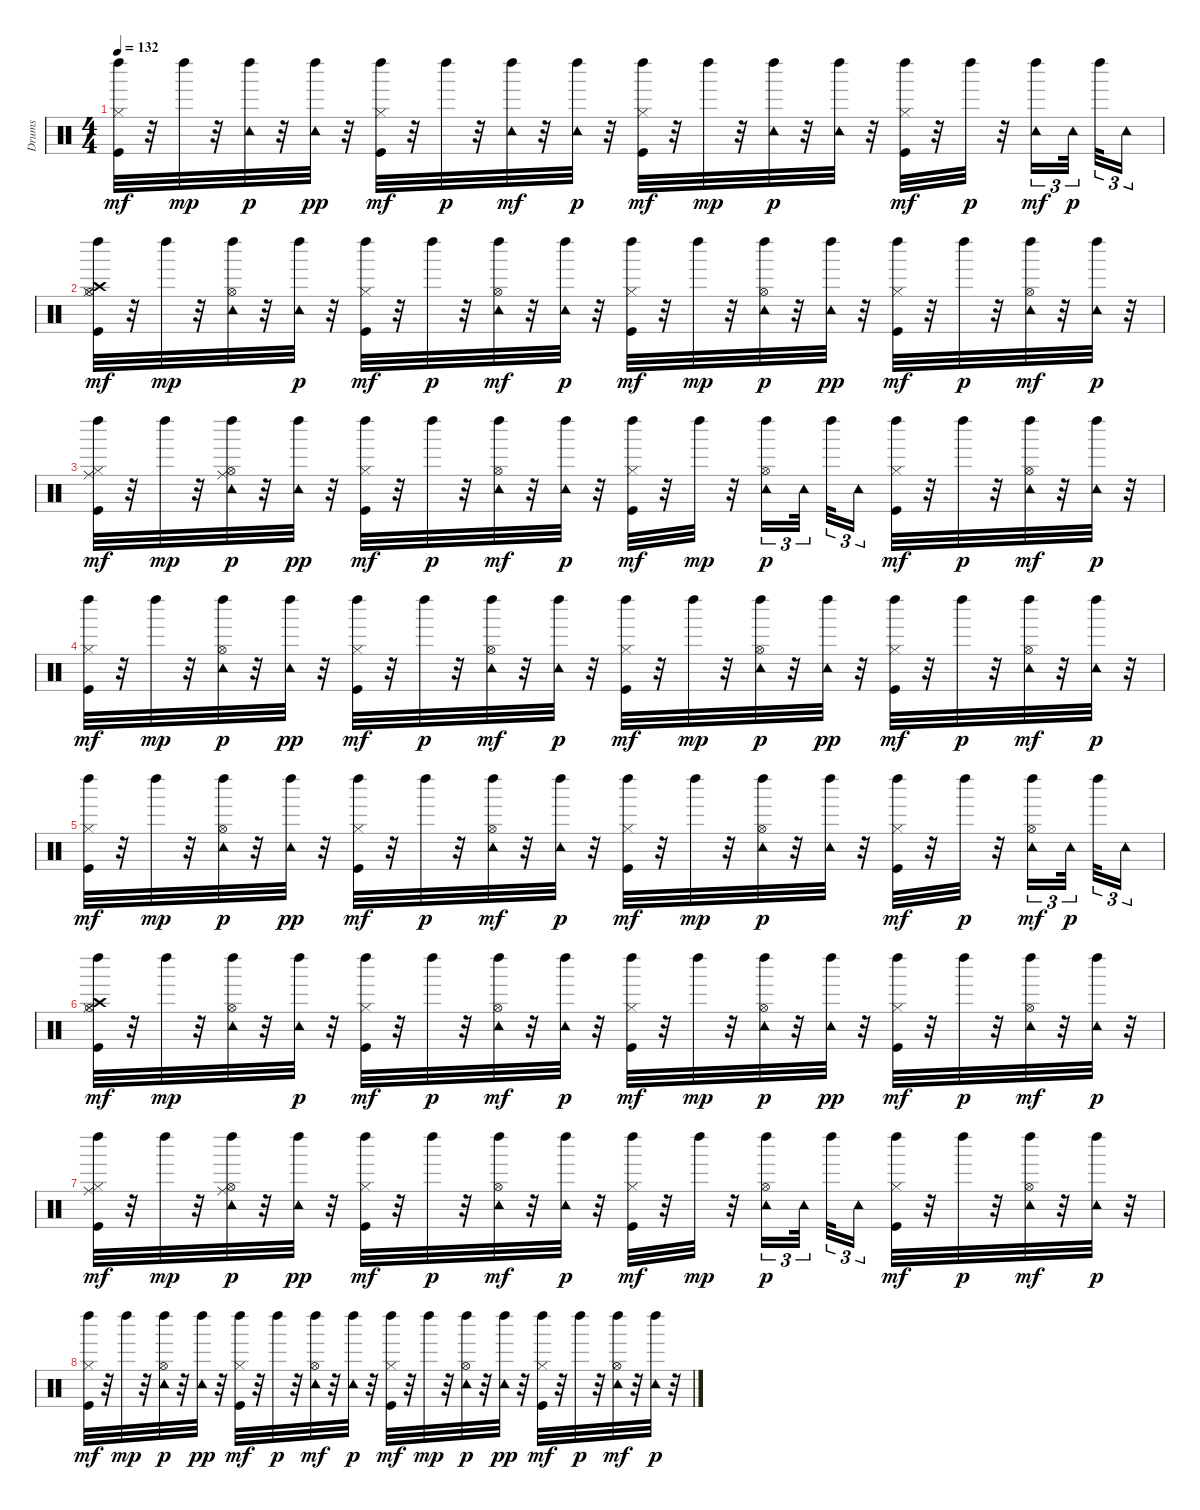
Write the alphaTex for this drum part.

\track ("Drums" "Drums") {instrument percussion}
\staff {score}
\articulation defaults
\ts (4 4)
\tempo 132
\clef neutral
\ks c
("Kick (hit)" "Hi-Hat (closed)" "Left Maraca (hit)").32{dy mf} r.32 "Left Maraca (hit)".32{dy mp} r.32 ("Tambourine (hit)" "Left Maraca (hit)").32{dy p} r.32 ("Tambourine (hit)" "Left Maraca (hit)").32{dy pp} r.32 ("Kick (hit)" "Hi-Hat (closed)" "Left Maraca (hit)").32{dy mf} r.32 "Left Maraca (hit)".32{dy p} r.32 ("Tambourine (hit)" "Left Maraca (hit)").32{dy mf} r.32 ("Tambourine (hit)" "Left Maraca (hit)").32{dy p} r.32 ("Kick (hit)" "Hi-Hat (closed)" "Left Maraca (hit)").32{dy mf} r.32 "Left Maraca (hit)".32{dy mp} r.32 ("Tambourine (hit)" "Left Maraca (hit)").32{dy p} r.32 ("Tambourine (hit)" "Left Maraca (hit)").32 r.32 ("Kick (hit)" "Hi-Hat (closed)" "Left Maraca (hit)").32{dy mf} r.32 "Left Maraca (hit)".32{dy p} r.32 ("Tambourine (hit)" "Left Maraca (hit)").16{tu (3 2) dy mf} "Tambourine (hit)".32{tu (3 2) dy p beam splitsecondary} "Left Maraca (hit)".32{tu (3 2)} "Tambourine (hit)".16{tu (3 2)} |
("Kick (hit)" "Hi-Hat (closed)" "Hi-Hat (open)" "Crash high (hit)" "Left Maraca (hit)").32{dy mf} r.32 "Left Maraca (hit)".32{dy mp} r.32 ("Hi-Hat (open)" "Tambourine (hit)" "Left Maraca (hit)").32 r.32 ("Tambourine (hit)" "Left Maraca (hit)").32{dy p} r.32 ("Kick (hit)" "Hi-Hat (closed)" "Left Maraca (hit)").32{dy mf} r.32 "Left Maraca (hit)".32{dy p} r.32 ("Hi-Hat (open)" "Tambourine (hit)" "Left Maraca (hit)").32{dy mf} r.32 ("Tambourine (hit)" "Left Maraca (hit)").32{dy p} r.32 ("Kick (hit)" "Hi-Hat (closed)" "Left Maraca (hit)").32{dy mf} r.32 "Left Maraca (hit)".32{dy mp} r.32 ("Hi-Hat (open)" "Tambourine (hit)" "Left Maraca (hit)").32{dy p} r.32 ("Tambourine (hit)" "Left Maraca (hit)").32{dy pp} r.32 ("Kick (hit)" "Hi-Hat (closed)" "Left Maraca (hit)").32{dy mf} r.32 "Left Maraca (hit)".32{dy p} r.32 ("Hi-Hat (open)" "Tambourine (hit)" "Left Maraca (hit)").32{dy mf} r.32 ("Tambourine (hit)" "Left Maraca (hit)").32{dy p} r.32 |
("Kick (hit)" "Hi-Hat (closed)" "Ride (middle)" "Left Maraca (hit)").32{dy mf} r.32 "Left Maraca (hit)".32{dy mp} r.32 ("Hi-Hat (open)" "Ride (middle)" "Tambourine (hit)" "Left Maraca (hit)").32{dy p} r.32 ("Tambourine (hit)" "Left Maraca (hit)").32{dy pp} r.32 ("Kick (hit)" "Hi-Hat (closed)" "Left Maraca (hit)").32{dy mf} r.32 "Left Maraca (hit)".32{dy p} r.32 ("Hi-Hat (open)" "Tambourine (hit)" "Left Maraca (hit)").32{dy mf} r.32 ("Tambourine (hit)" "Left Maraca (hit)").32{dy p} r.32 ("Kick (hit)" "Hi-Hat (closed)" "Left Maraca (hit)").32{dy mf} r.32 "Left Maraca (hit)".32{dy mp} r.32 ("Hi-Hat (open)" "Tambourine (hit)" "Left Maraca (hit)").16{tu (3 2) dy p} "Tambourine (hit)".32{tu (3 2) beam splitsecondary} "Left Maraca (hit)".32{tu (3 2)} "Tambourine (hit)".16{tu (3 2)} ("Kick (hit)" "Hi-Hat (closed)" "Left Maraca (hit)").32{dy mf} r.32 "Left Maraca (hit)".32{dy p} r.32 ("Hi-Hat (open)" "Tambourine (hit)" "Left Maraca (hit)").32{dy mf} r.32 ("Tambourine (hit)" "Left Maraca (hit)").32{dy p} r.32 |
("Kick (hit)" "Hi-Hat (closed)" "Left Maraca (hit)").32{dy mf} r.32 "Left Maraca (hit)".32{dy mp} r.32 ("Hi-Hat (open)" "Tambourine (hit)" "Left Maraca (hit)").32{dy p} r.32 ("Tambourine (hit)" "Left Maraca (hit)").32{dy pp} r.32 ("Kick (hit)" "Hi-Hat (closed)" "Left Maraca (hit)").32{dy mf} r.32 "Left Maraca (hit)".32{dy p} r.32 ("Hi-Hat (open)" "Tambourine (hit)" "Left Maraca (hit)").32{dy mf} r.32 ("Tambourine (hit)" "Left Maraca (hit)").32{dy p} r.32 ("Kick (hit)" "Hi-Hat (closed)" "Left Maraca (hit)").32{dy mf} r.32 "Left Maraca (hit)".32{dy mp} r.32 ("Hi-Hat (open)" "Tambourine (hit)" "Left Maraca (hit)").32{dy p} r.32 ("Tambourine (hit)" "Left Maraca (hit)").32{dy pp} r.32 ("Kick (hit)" "Hi-Hat (closed)" "Left Maraca (hit)").32{dy mf} r.32 "Left Maraca (hit)".32{dy p} r.32 ("Hi-Hat (open)" "Tambourine (hit)" "Left Maraca (hit)").32{dy mf} r.32 ("Tambourine (hit)" "Left Maraca (hit)").32{dy p} r.32 |
("Kick (hit)" "Hi-Hat (closed)" "Left Maraca (hit)").32{dy mf} r.32 "Left Maraca (hit)".32{dy mp} r.32 ("Hi-Hat (open)" "Tambourine (hit)" "Left Maraca (hit)").32{dy p} r.32 ("Tambourine (hit)" "Left Maraca (hit)").32{dy pp} r.32 ("Kick (hit)" "Hi-Hat (closed)" "Left Maraca (hit)").32{dy mf} r.32 "Left Maraca (hit)".32{dy p} r.32 ("Hi-Hat (open)" "Tambourine (hit)" "Left Maraca (hit)").32{dy mf} r.32 ("Tambourine (hit)" "Left Maraca (hit)").32{dy p} r.32 ("Kick (hit)" "Hi-Hat (closed)" "Left Maraca (hit)").32{dy mf} r.32 "Left Maraca (hit)".32{dy mp} r.32 ("Hi-Hat (open)" "Tambourine (hit)" "Left Maraca (hit)").32{dy p} r.32 ("Tambourine (hit)" "Left Maraca (hit)").32 r.32 ("Kick (hit)" "Hi-Hat (closed)" "Left Maraca (hit)").32{dy mf} r.32 "Left Maraca (hit)".32{dy p} r.32 ("Hi-Hat (open)" "Tambourine (hit)" "Left Maraca (hit)").16{tu (3 2) dy mf} "Tambourine (hit)".32{tu (3 2) dy p beam splitsecondary} "Left Maraca (hit)".32{tu (3 2)} "Tambourine (hit)".16{tu (3 2)} |
("Kick (hit)" "Hi-Hat (closed)" "Hi-Hat (open)" "Crash high (hit)" "Left Maraca (hit)").32{dy mf} r.32 "Left Maraca (hit)".32{dy mp} r.32 ("Hi-Hat (open)" "Tambourine (hit)" "Left Maraca (hit)").32 r.32 ("Tambourine (hit)" "Left Maraca (hit)").32{dy p} r.32 ("Kick (hit)" "Hi-Hat (closed)" "Left Maraca (hit)").32{dy mf} r.32 "Left Maraca (hit)".32{dy p} r.32 ("Hi-Hat (open)" "Tambourine (hit)" "Left Maraca (hit)").32{dy mf} r.32 ("Tambourine (hit)" "Left Maraca (hit)").32{dy p} r.32 ("Kick (hit)" "Hi-Hat (closed)" "Left Maraca (hit)").32{dy mf} r.32 "Left Maraca (hit)".32{dy mp} r.32 ("Hi-Hat (open)" "Tambourine (hit)" "Left Maraca (hit)").32{dy p} r.32 ("Tambourine (hit)" "Left Maraca (hit)").32{dy pp} r.32 ("Kick (hit)" "Hi-Hat (closed)" "Left Maraca (hit)").32{dy mf} r.32 "Left Maraca (hit)".32{dy p} r.32 ("Hi-Hat (open)" "Tambourine (hit)" "Left Maraca (hit)").32{dy mf} r.32 ("Tambourine (hit)" "Left Maraca (hit)").32{dy p} r.32 |
("Kick (hit)" "Hi-Hat (closed)" "Ride (middle)" "Left Maraca (hit)").32{dy mf} r.32 "Left Maraca (hit)".32{dy mp} r.32 ("Hi-Hat (open)" "Ride (middle)" "Tambourine (hit)" "Left Maraca (hit)").32{dy p} r.32 ("Tambourine (hit)" "Left Maraca (hit)").32{dy pp} r.32 ("Kick (hit)" "Hi-Hat (closed)" "Left Maraca (hit)").32{dy mf} r.32 "Left Maraca (hit)".32{dy p} r.32 ("Hi-Hat (open)" "Tambourine (hit)" "Left Maraca (hit)").32{dy mf} r.32 ("Tambourine (hit)" "Left Maraca (hit)").32{dy p} r.32 ("Kick (hit)" "Hi-Hat (closed)" "Left Maraca (hit)").32{dy mf} r.32 "Left Maraca (hit)".32{dy mp} r.32 ("Hi-Hat (open)" "Tambourine (hit)" "Left Maraca (hit)").16{tu (3 2) dy p} "Tambourine (hit)".32{tu (3 2) beam splitsecondary} "Left Maraca (hit)".32{tu (3 2)} "Tambourine (hit)".16{tu (3 2)} ("Kick (hit)" "Hi-Hat (closed)" "Left Maraca (hit)").32{dy mf} r.32 "Left Maraca (hit)".32{dy p} r.32 ("Hi-Hat (open)" "Tambourine (hit)" "Left Maraca (hit)").32{dy mf} r.32 ("Tambourine (hit)" "Left Maraca (hit)").32{dy p} r.32 |
("Kick (hit)" "Hi-Hat (closed)" "Left Maraca (hit)").32{dy mf} r.32 "Left Maraca (hit)".32{dy mp} r.32 ("Hi-Hat (open)" "Tambourine (hit)" "Left Maraca (hit)").32{dy p} r.32 ("Tambourine (hit)" "Left Maraca (hit)").32{dy pp} r.32 ("Kick (hit)" "Hi-Hat (closed)" "Left Maraca (hit)").32{dy mf} r.32 "Left Maraca (hit)".32{dy p} r.32 ("Hi-Hat (open)" "Tambourine (hit)" "Left Maraca (hit)").32{dy mf} r.32 ("Tambourine (hit)" "Left Maraca (hit)").32{dy p} r.32 ("Kick (hit)" "Hi-Hat (closed)" "Left Maraca (hit)").32{dy mf} r.32 "Left Maraca (hit)".32{dy mp} r.32 ("Hi-Hat (open)" "Tambourine (hit)" "Left Maraca (hit)").32{dy p} r.32 ("Tambourine (hit)" "Left Maraca (hit)").32{dy pp} r.32 ("Kick (hit)" "Hi-Hat (closed)" "Left Maraca (hit)").32{dy mf} r.32 "Left Maraca (hit)".32{dy p} r.32 ("Hi-Hat (open)" "Tambourine (hit)" "Left Maraca (hit)").32{dy mf} r.32 ("Tambourine (hit)" "Left Maraca (hit)").32{dy p} r.32
